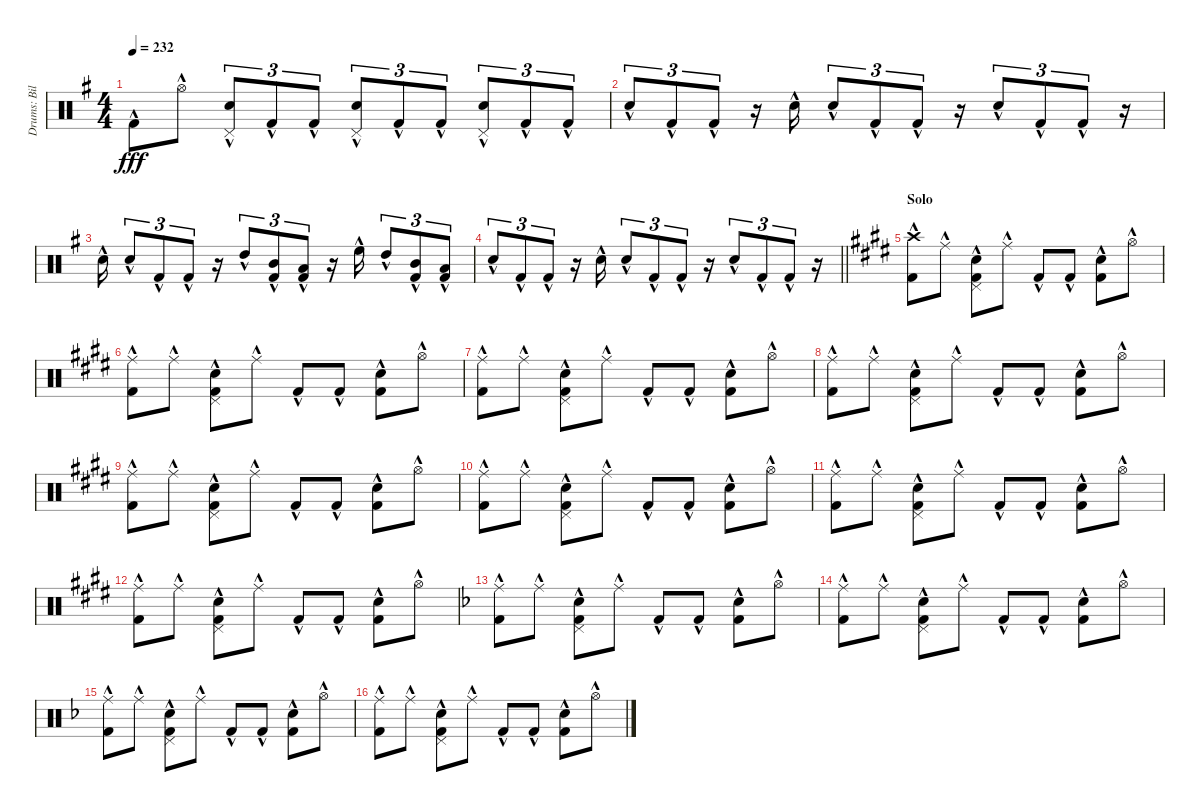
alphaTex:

\track ("Drums: Bill" "Drums: Bil") {instrument percussion}
\staff {score}
\articulation defaults
\ts (4 4)
\tempo 232
\clef neutral
\ks g "Kick (hit) 2"{hac}.8{dy fff} "Hi-Hat (open)"{hac}.8
("Pedal Hi-Hat (hit)"{hac} "Snare (hit) 2"{hac}).8{tu (3 2)} "Kick (hit) 2"{hac}.8{tu (3 2)} "Kick (hit) 2"{hac}.8{tu (3 2)} ("Pedal Hi-Hat (hit)"{hac} "Snare (hit) 2"{hac}).8{tu (3 2)} "Kick (hit) 2"{hac}.8{tu (3 2)} "Kick (hit) 2"{hac}.8{tu (3 2)} ("Pedal Hi-Hat (hit)"{hac} "Snare (hit) 2"{hac}).8{tu (3 2)} "Kick (hit) 2"{hac}.8{tu (3 2)} "Kick (hit) 2"{hac}.8{tu (3 2)} |
"Electric Snare (hit)"{hac}.8{tu (3 2)} "Kick (hit) 2"{hac}.8{tu (3 2)} "Kick (hit) 2"{hac}.8{tu (3 2)} r.16 "Electric Snare (hit)"{hac}.16 "Electric Snare (hit)"{hac}.8{tu (3 2)} "Kick (hit) 2"{hac}.8{tu (3 2)} "Kick (hit) 2"{hac}.8{tu (3 2)} r.16 "Electric Snare (hit)"{hac}.8{tu (3 2)} "Kick (hit) 2"{hac}.8{tu (3 2)} "Kick (hit) 2"{hac}.8{tu (3 2)} r.16 |
"Electric Snare (hit)"{hac}.16 "Electric Snare (hit)"{hac}.8{tu (3 2)} "Kick (hit) 2"{hac}.8{tu (3 2)} "Kick (hit) 2"{hac}.8{tu (3 2)} r.16 "High Tom (hit)"{hac}.8{tu (3 2)} ("Mid Tom (hit)"{hac} "Kick (hit) 2"{hac}).8{tu (3 2)} ("Low Tom (hit)"{hac} "Kick (hit) 2"{hac}).8{tu (3 2)} r.16 "High Floor Tom (hit)"{hac}.16 "High Tom (hit)"{hac}.8{tu (3 2)} ("Mid Tom (hit)"{hac} "Kick (hit) 2"{hac}).8{tu (3 2)} ("Low Tom (hit)"{hac} "Kick (hit) 2"{hac}).8{tu (3 2)} |
\barLineRight lightlight "Electric Snare (hit)"{hac}.8{tu (3 2)} "Kick (hit) 2"{hac}.8{tu (3 2)} "Kick (hit) 2"{hac}.8{tu (3 2)}
r.16 "Electric Snare (hit)"{hac}.16 "Electric Snare (hit)"{hac}.8{tu (3 2)} "Kick (hit) 2"{hac}.8{tu (3 2)} "Kick (hit) 2"{hac}.8{tu (3 2)} r.16 "Electric Snare (hit)"{hac}.8{tu (3 2)} "Kick (hit) 2"{hac}.8{tu (3 2)} "Kick (hit) 2"{hac}.8{tu (3 2)} r.16 |
\section ("" "Solo")
\ks e
("Crash high (hit)"{hac} "Kick (hit) 2"{hac}).8 "Ride (middle)"{hac}.8 ("Pedal Hi-Hat (hit)"{hac} "Snare (hit) 2"{hac} "Kick (hit) 2"{hac}).8 "Ride (middle)"{hac}.8 "Kick (hit) 2"{hac}.8 "Kick (hit) 2"{hac}.8 ("Snare (hit) 2"{hac} "Kick (hit) 2"{hac}).8 "Hi-Hat (open)"{hac}.8 |
("Ride (middle)"{hac} "Kick (hit) 2"{hac}).8 "Ride (middle)"{hac}.8 ("Pedal Hi-Hat (hit)"{hac} "Snare (hit) 2"{hac} "Kick (hit) 2"{hac}).8 "Ride (middle)"{hac}.8 "Kick (hit) 2"{hac}.8 "Kick (hit) 2"{hac}.8 ("Snare (hit) 2"{hac} "Kick (hit) 2"{hac}).8 "Hi-Hat (open)"{hac}.8 |
("Ride (middle)"{hac} "Kick (hit) 2"{hac}).8 "Ride (middle)"{hac}.8 ("Pedal Hi-Hat (hit)"{hac} "Snare (hit) 2"{hac} "Kick (hit) 2"{hac}).8 "Ride (middle)"{hac}.8 "Kick (hit) 2"{hac}.8 "Kick (hit) 2"{hac}.8 ("Snare (hit) 2"{hac} "Kick (hit) 2"{hac}).8 "Hi-Hat (open)"{hac}.8 |
("Ride (middle)"{hac} "Kick (hit) 2"{hac}).8 "Ride (middle)"{hac}.8 ("Pedal Hi-Hat (hit)"{hac} "Snare (hit) 2"{hac} "Kick (hit) 2"{hac}).8 "Ride (middle)"{hac}.8 "Kick (hit) 2"{hac}.8 "Kick (hit) 2"{hac}.8 ("Snare (hit) 2"{hac} "Kick (hit) 2"{hac}).8 "Hi-Hat (open)"{hac}.8 |
("Ride (middle)"{hac} "Kick (hit) 2"{hac}).8 "Ride (middle)"{hac}.8 ("Pedal Hi-Hat (hit)"{hac} "Snare (hit) 2"{hac} "Kick (hit) 2"{hac}).8 "Ride (middle)"{hac}.8 "Kick (hit) 2"{hac}.8 "Kick (hit) 2"{hac}.8 ("Snare (hit) 2"{hac} "Kick (hit) 2"{hac}).8 "Hi-Hat (open)"{hac}.8 |
("Ride (middle)"{hac} "Kick (hit) 2"{hac}).8 "Ride (middle)"{hac}.8 ("Pedal Hi-Hat (hit)"{hac} "Snare (hit) 2"{hac} "Kick (hit) 2"{hac}).8 "Ride (middle)"{hac}.8 "Kick (hit) 2"{hac}.8 "Kick (hit) 2"{hac}.8 ("Snare (hit) 2"{hac} "Kick (hit) 2"{hac}).8 "Hi-Hat (open)"{hac}.8 |
("Ride (middle)"{hac} "Kick (hit) 2"{hac}).8 "Ride (middle)"{hac}.8 ("Pedal Hi-Hat (hit)"{hac} "Snare (hit) 2"{hac} "Kick (hit) 2"{hac}).8 "Ride (middle)"{hac}.8 "Kick (hit) 2"{hac}.8 "Kick (hit) 2"{hac}.8 ("Snare (hit) 2"{hac} "Kick (hit) 2"{hac}).8 "Hi-Hat (open)"{hac}.8 |
("Ride (middle)"{hac} "Kick (hit) 2"{hac}).8 "Ride (middle)"{hac}.8 ("Pedal Hi-Hat (hit)"{hac} "Snare (hit) 2"{hac} "Kick (hit) 2"{hac}).8 "Ride (middle)"{hac}.8 "Kick (hit) 2"{hac}.8 "Kick (hit) 2"{hac}.8 ("Snare (hit) 2"{hac} "Kick (hit) 2"{hac}).8 "Hi-Hat (open)"{hac}.8 |
\ks f
("Ride (middle)"{hac} "Kick (hit) 2"{hac}).8 "Ride (middle)"{hac}.8 ("Pedal Hi-Hat (hit)"{hac} "Snare (hit) 2"{hac} "Kick (hit) 2"{hac}).8 "Ride (middle)"{hac}.8 "Kick (hit) 2"{hac}.8 "Kick (hit) 2"{hac}.8 ("Snare (hit) 2"{hac} "Kick (hit) 2"{hac}).8 "Hi-Hat (open)"{hac}.8 |
("Ride (middle)"{hac} "Kick (hit) 2"{hac}).8 "Ride (middle)"{hac}.8 ("Pedal Hi-Hat (hit)"{hac} "Snare (hit) 2"{hac} "Kick (hit) 2"{hac}).8 "Ride (middle)"{hac}.8 "Kick (hit) 2"{hac}.8 "Kick (hit) 2"{hac}.8 ("Snare (hit) 2"{hac} "Kick (hit) 2"{hac}).8 "Hi-Hat (open)"{hac}.8 |
("Ride (middle)"{hac} "Kick (hit) 2"{hac}).8 "Ride (middle)"{hac}.8 ("Pedal Hi-Hat (hit)"{hac} "Snare (hit) 2"{hac} "Kick (hit) 2"{hac}).8 "Ride (middle)"{hac}.8 "Kick (hit) 2"{hac}.8 "Kick (hit) 2"{hac}.8 ("Snare (hit) 2"{hac} "Kick (hit) 2"{hac}).8 "Hi-Hat (open)"{hac}.8 |
("Ride (middle)"{hac} "Kick (hit) 2"{hac}).8 "Ride (middle)"{hac}.8 ("Pedal Hi-Hat (hit)"{hac} "Snare (hit) 2"{hac} "Kick (hit) 2"{hac}).8 "Ride (middle)"{hac}.8 "Kick (hit) 2"{hac}.8 "Kick (hit) 2"{hac}.8 ("Snare (hit) 2"{hac} "Kick (hit) 2"{hac}).8 "Hi-Hat (open)"{hac}.8
